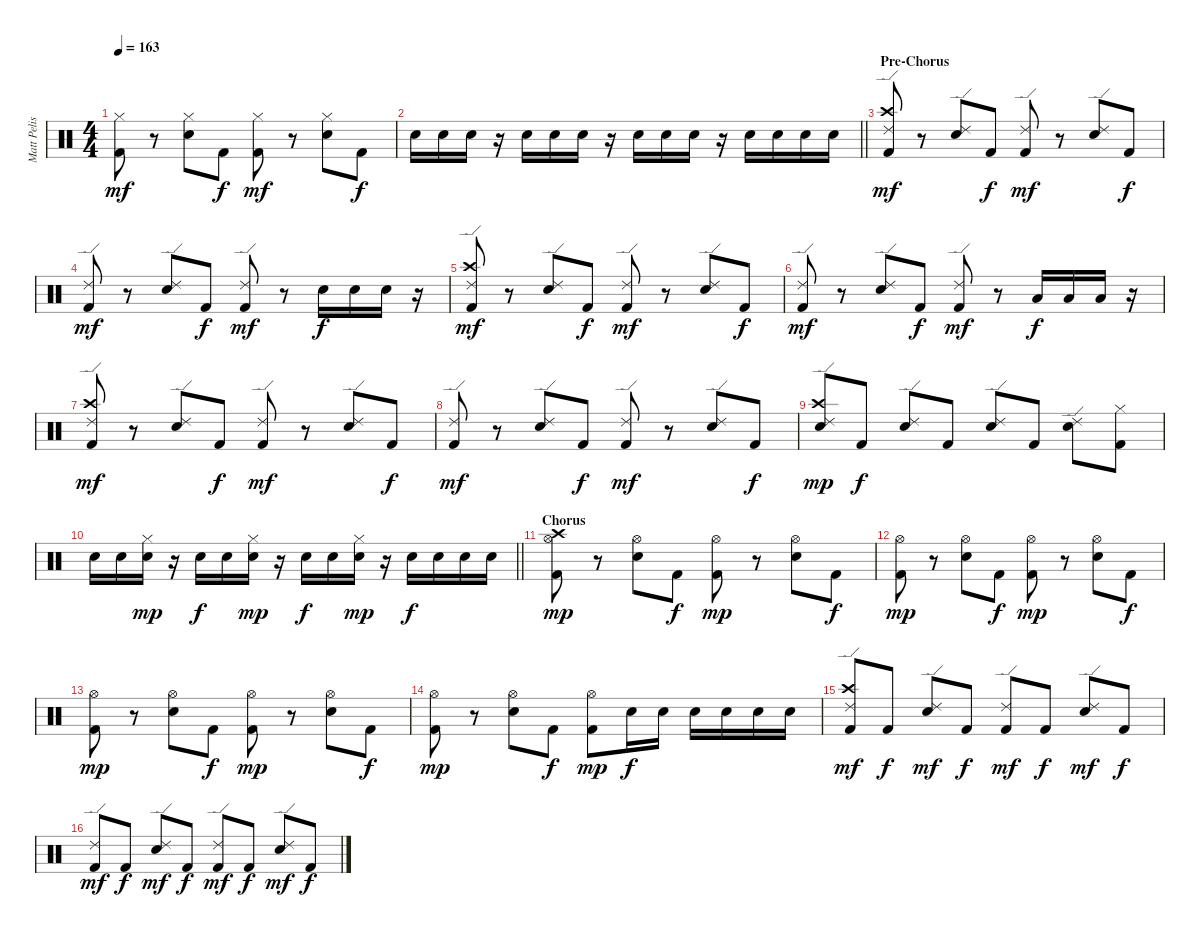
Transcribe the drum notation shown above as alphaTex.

\track ("Matt Pelissier (Drums)" "Matt Pelis") {instrument percussion}
\staff {score}
\articulation defaults
\ts (4 4)
\tempo 163
\clef neutral
\ks c
("Hi-Hat (closed)" "Kick (hit) 2").8{dy mf} r.8 ("Hi-Hat (closed)" "Electric Snare (hit)").8 "Kick (hit) 2".8{dy f} ("Hi-Hat (closed)" "Kick (hit) 2").8{dy mf} r.8 ("Hi-Hat (closed)" "Electric Snare (hit)").8 "Kick (hit) 2".8{dy f} |
\barLineRight lightlight "Electric Snare (hit)".16 "Electric Snare (hit)".16 "Electric Snare (hit)".16
r.16 "Electric Snare (hit)".16 "Electric Snare (hit)".16 "Electric Snare (hit)".16 r.16 "Electric Snare (hit)".16 "Electric Snare (hit)".16 "Electric Snare (hit)".16 r.16 "Electric Snare (hit)".16 "Electric Snare (hit)".16 "Electric Snare (hit)".16 "Electric Snare (hit)".16 |
\section ("" "Pre-Chorus")
("Crash high (hit)" "Ride (edge) 2" "Kick (hit) 2").8{dy mf} r.8 ("Ride (edge) 2" "Electric Snare (hit)").8 "Kick (hit) 2".8{dy f} ("Ride (edge) 2" "Kick (hit) 2").8{dy mf} r.8 ("Ride (edge) 2" "Electric Snare (hit)").8 "Kick (hit) 2".8{dy f} |
("Ride (edge) 2" "Kick (hit) 2").8{dy mf} r.8 ("Ride (edge) 2" "Electric Snare (hit)").8 "Kick (hit) 2".8{dy f} ("Ride (edge) 2" "Kick (hit) 2").8{dy mf} r.8 "Electric Snare (hit)".16{dy f} "Electric Snare (hit)".16 "Electric Snare (hit)".16 r.16 |
("Crash high (hit)" "Ride (edge) 2" "Kick (hit) 2").8{dy mf} r.8 ("Ride (edge) 2" "Electric Snare (hit)").8 "Kick (hit) 2".8{dy f} ("Ride (edge) 2" "Kick (hit) 2").8{dy mf} r.8 ("Ride (edge) 2" "Electric Snare (hit)").8 "Kick (hit) 2".8{dy f} |
("Ride (edge) 2" "Kick (hit) 2").8{dy mf} r.8 ("Ride (edge) 2" "Electric Snare (hit)").8 "Kick (hit) 2".8{dy f} ("Ride (edge) 2" "Kick (hit) 2").8{dy mf} r.8 "Low Floor Tom (hit)".16{dy f} "Low Floor Tom (hit)".16 "Low Floor Tom (hit)".16 r.16 |
("Crash high (hit)" "Ride (edge) 2" "Kick (hit) 2").8{dy mf} r.8 ("Ride (edge) 2" "Electric Snare (hit)").8 "Kick (hit) 2".8{dy f} ("Ride (edge) 2" "Kick (hit) 2").8{dy mf} r.8 ("Ride (edge) 2" "Electric Snare (hit)").8 "Kick (hit) 2".8{dy f} |
("Ride (edge) 2" "Kick (hit) 2").8{dy mf} r.8 ("Ride (edge) 2" "Electric Snare (hit)").8 "Kick (hit) 2".8{dy f} ("Ride (edge) 2" "Kick (hit) 2").8{dy mf} r.8 ("Ride (edge) 2" "Electric Snare (hit)").8 "Kick (hit) 2".8{dy f} |
("Crash high (hit)" "Ride (edge) 2" "Electric Snare (hit)").8{dy mp} "Kick (hit) 2".8{dy f} ("Ride (edge) 2" "Electric Snare (hit)").8 "Kick (hit) 2".8 ("Ride (edge) 2" "Electric Snare (hit)").8 "Kick (hit) 2".8 ("Ride (edge) 2" "Electric Snare (hit)").8 ("Hi-Hat (closed)" "Kick (hit) 2").8 |
\barLineRight lightlight "Electric Snare (hit)".16 "Electric Snare (hit)".16
("Hi-Hat (closed)" "Electric Snare (hit)").16{dy mp} r.16 "Electric Snare (hit)".16{dy f} "Electric Snare (hit)".16 ("Hi-Hat (closed)" "Electric Snare (hit)").16{dy mp} r.16 "Electric Snare (hit)".16{dy f} "Electric Snare (hit)".16 ("Hi-Hat (closed)" "Electric Snare (hit)").16{dy mp} r.16 "Electric Snare (hit)".16{dy f} "Electric Snare (hit)".16 "Electric Snare (hit)".16 "Electric Snare (hit)".16 |
\section ("" "Chorus")
("Crash high (hit)" "Hi-Hat (open)" "Kick (hit) 2").8{dy mp} r.8 ("Hi-Hat (open)" "Electric Snare (hit)").8 "Kick (hit) 2".8{dy f} ("Hi-Hat (open)" "Kick (hit) 2").8{dy mp} r.8 ("Hi-Hat (open)" "Electric Snare (hit)").8 "Kick (hit) 2".8{dy f} |
("Hi-Hat (open)" "Kick (hit) 2").8{dy mp} r.8 ("Hi-Hat (open)" "Electric Snare (hit)").8 "Kick (hit) 2".8{dy f} ("Hi-Hat (open)" "Kick (hit) 2").8{dy mp} r.8 ("Hi-Hat (open)" "Electric Snare (hit)").8 "Kick (hit) 2".8{dy f} |
("Hi-Hat (open)" "Kick (hit) 2").8{dy mp} r.8 ("Hi-Hat (open)" "Electric Snare (hit)").8 "Kick (hit) 2".8{dy f} ("Hi-Hat (open)" "Kick (hit) 2").8{dy mp} r.8 ("Hi-Hat (open)" "Electric Snare (hit)").8 "Kick (hit) 2".8{dy f} |
("Hi-Hat (open)" "Kick (hit) 2").8{dy mp} r.8 ("Hi-Hat (open)" "Electric Snare (hit)").8 "Kick (hit) 2".8{dy f} ("Hi-Hat (open)" "Kick (hit) 2").8{dy mp} "Electric Snare (hit)".16{dy f} "Electric Snare (hit)".16 "Electric Snare (hit)".16 "Electric Snare (hit)".16 "Electric Snare (hit)".16 "Electric Snare (hit)".16 |
("Crash high (hit)" "Ride (edge) 2" "Kick (hit) 2").8{dy mf} "Kick (hit) 2".8{dy f} ("Ride (edge) 2" "Electric Snare (hit)").8{dy mf} "Kick (hit) 2".8{dy f} ("Ride (edge) 2" "Kick (hit) 2").8{dy mf} "Kick (hit) 2".8{dy f} ("Ride (edge) 2" "Electric Snare (hit)").8{dy mf} "Kick (hit) 2".8{dy f} |
("Ride (edge) 2" "Kick (hit) 2").8{dy mf} "Kick (hit) 2".8{dy f} ("Ride (edge) 2" "Electric Snare (hit)").8{dy mf} "Kick (hit) 2".8{dy f} ("Ride (edge) 2" "Kick (hit) 2").8{dy mf} "Kick (hit) 2".8{dy f} ("Ride (edge) 2" "Electric Snare (hit)").8{dy mf} "Kick (hit) 2".8{dy f}
